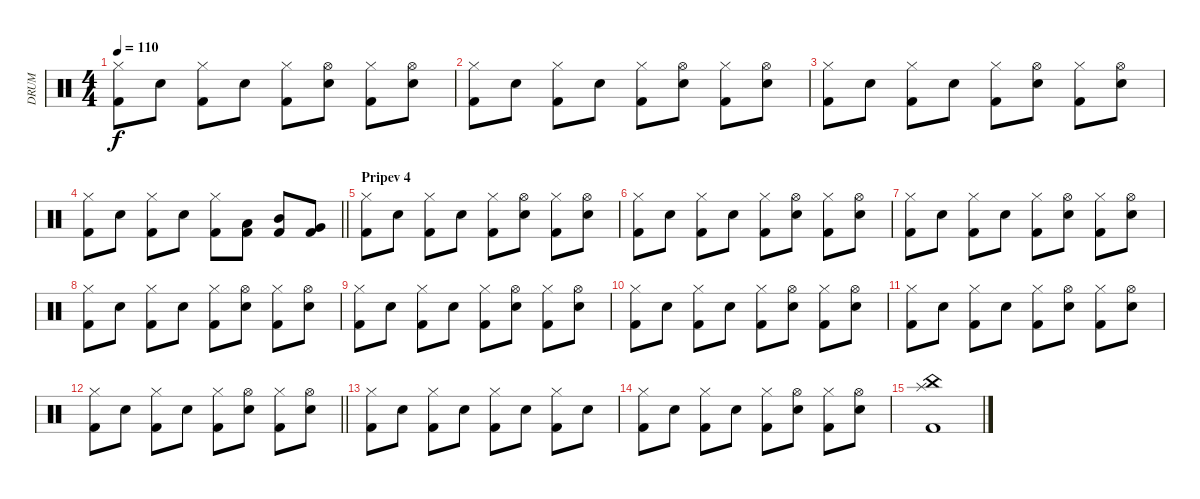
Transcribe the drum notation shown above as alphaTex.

\track ("DRUM" "DRUM") {instrument percussion}
\staff {score}
\articulation defaults
\ts (4 4)
\tempo 110
\clef neutral
\ks c
("Hi-Hat (closed)" "Kick (hit) 2").8{dy f} "Electric Snare (hit)".8 ("Hi-Hat (closed)" "Kick (hit) 2").8 "Electric Snare (hit)".8 ("Hi-Hat (closed)" "Kick (hit) 2").8 ("Hi-Hat (open)" "Electric Snare (hit)").8 ("Hi-Hat (closed)" "Kick (hit) 2").8 ("Hi-Hat (open)" "Electric Snare (hit)").8 |
("Hi-Hat (closed)" "Kick (hit) 2").8 "Electric Snare (hit)".8 ("Hi-Hat (closed)" "Kick (hit) 2").8 "Electric Snare (hit)".8 ("Hi-Hat (closed)" "Kick (hit) 2").8 ("Hi-Hat (open)" "Electric Snare (hit)").8 ("Hi-Hat (closed)" "Kick (hit) 2").8 ("Hi-Hat (open)" "Electric Snare (hit)").8 |
("Hi-Hat (closed)" "Kick (hit) 2").8 "Electric Snare (hit)".8 ("Hi-Hat (closed)" "Kick (hit) 2").8 "Electric Snare (hit)".8 ("Hi-Hat (closed)" "Kick (hit) 2").8 ("Hi-Hat (open)" "Electric Snare (hit)").8 ("Hi-Hat (closed)" "Kick (hit) 2").8 ("Hi-Hat (open)" "Electric Snare (hit)").8 |
\barLineRight lightlight
("Hi-Hat (closed)" "Kick (hit) 2").8 "Electric Snare (hit)".8 ("Hi-Hat (closed)" "Kick (hit) 2").8 "Electric Snare (hit)".8 ("Hi-Hat (closed)" "Kick (hit) 2").8 ("Low Tom (hit)" "Kick (hit) 2").8 ("Mid Tom (hit)" "Kick (hit) 2").8 ("Very Low Tom (hit)" "Kick (hit) 2").8 |
\section ("" "Pripev 4")
("Hi-Hat (closed)" "Kick (hit) 2").8 "Electric Snare (hit)".8 ("Hi-Hat (closed)" "Kick (hit) 2").8 "Electric Snare (hit)".8 ("Hi-Hat (closed)" "Kick (hit) 2").8 ("Hi-Hat (open)" "Electric Snare (hit)").8 ("Hi-Hat (closed)" "Kick (hit) 2").8 ("Hi-Hat (open)" "Electric Snare (hit)").8 |
("Hi-Hat (closed)" "Kick (hit) 2").8 "Electric Snare (hit)".8 ("Hi-Hat (closed)" "Kick (hit) 2").8 "Electric Snare (hit)".8 ("Hi-Hat (closed)" "Kick (hit) 2").8 ("Hi-Hat (open)" "Electric Snare (hit)").8 ("Hi-Hat (closed)" "Kick (hit) 2").8 ("Hi-Hat (open)" "Electric Snare (hit)").8 |
("Hi-Hat (closed)" "Kick (hit) 2").8 "Electric Snare (hit)".8 ("Hi-Hat (closed)" "Kick (hit) 2").8 "Electric Snare (hit)".8 ("Hi-Hat (closed)" "Kick (hit) 2").8 ("Hi-Hat (open)" "Electric Snare (hit)").8 ("Hi-Hat (closed)" "Kick (hit) 2").8 ("Hi-Hat (open)" "Electric Snare (hit)").8 |
("Hi-Hat (closed)" "Kick (hit) 2").8 "Electric Snare (hit)".8 ("Hi-Hat (closed)" "Kick (hit) 2").8 "Electric Snare (hit)".8 ("Hi-Hat (closed)" "Kick (hit) 2").8 ("Hi-Hat (open)" "Electric Snare (hit)").8 ("Hi-Hat (closed)" "Kick (hit) 2").8 ("Hi-Hat (open)" "Electric Snare (hit)").8 |
("Hi-Hat (closed)" "Kick (hit) 2").8 "Electric Snare (hit)".8 ("Hi-Hat (closed)" "Kick (hit) 2").8 "Electric Snare (hit)".8 ("Hi-Hat (closed)" "Kick (hit) 2").8 ("Hi-Hat (open)" "Electric Snare (hit)").8 ("Hi-Hat (closed)" "Kick (hit) 2").8 ("Hi-Hat (open)" "Electric Snare (hit)").8 |
("Hi-Hat (closed)" "Kick (hit) 2").8 "Electric Snare (hit)".8 ("Hi-Hat (closed)" "Kick (hit) 2").8 "Electric Snare (hit)".8 ("Hi-Hat (closed)" "Kick (hit) 2").8 ("Hi-Hat (open)" "Electric Snare (hit)").8 ("Hi-Hat (closed)" "Kick (hit) 2").8 ("Hi-Hat (open)" "Electric Snare (hit)").8 |
("Hi-Hat (closed)" "Kick (hit) 2").8 "Electric Snare (hit)".8 ("Hi-Hat (closed)" "Kick (hit) 2").8 "Electric Snare (hit)".8 ("Hi-Hat (closed)" "Kick (hit) 2").8 ("Hi-Hat (open)" "Electric Snare (hit)").8 ("Hi-Hat (closed)" "Kick (hit) 2").8 ("Hi-Hat (open)" "Electric Snare (hit)").8 |
\barLineRight lightlight
("Hi-Hat (closed)" "Kick (hit) 2").8 "Electric Snare (hit)".8 ("Hi-Hat (closed)" "Kick (hit) 2").8 "Electric Snare (hit)".8 ("Hi-Hat (closed)" "Kick (hit) 2").8 ("Hi-Hat (open)" "Electric Snare (hit)").8 ("Hi-Hat (closed)" "Kick (hit) 2").8 ("Hi-Hat (open)" "Electric Snare (hit)").8 |
("Hi-Hat (closed)" "Kick (hit) 2").8 "Electric Snare (hit)".8 ("Hi-Hat (closed)" "Kick (hit) 2").8 "Electric Snare (hit)".8 ("Hi-Hat (closed)" "Kick (hit) 2").8 "Electric Snare (hit)".8 ("Hi-Hat (closed)" "Kick (hit) 2").8 "Electric Snare (hit)".8 |
("Hi-Hat (closed)" "Kick (hit) 2").8 "Electric Snare (hit)".8 ("Hi-Hat (closed)" "Kick (hit) 2").8 "Electric Snare (hit)".8 ("Hi-Hat (closed)" "Kick (hit) 2").8 ("Hi-Hat (open)" "Electric Snare (hit)").8 ("Hi-Hat (closed)" "Kick (hit) 2").8 ("Hi-Hat (open)" "Electric Snare (hit)").8 |
("Splash (hit)" "China (hit)" "Kick (hit) 2").1
